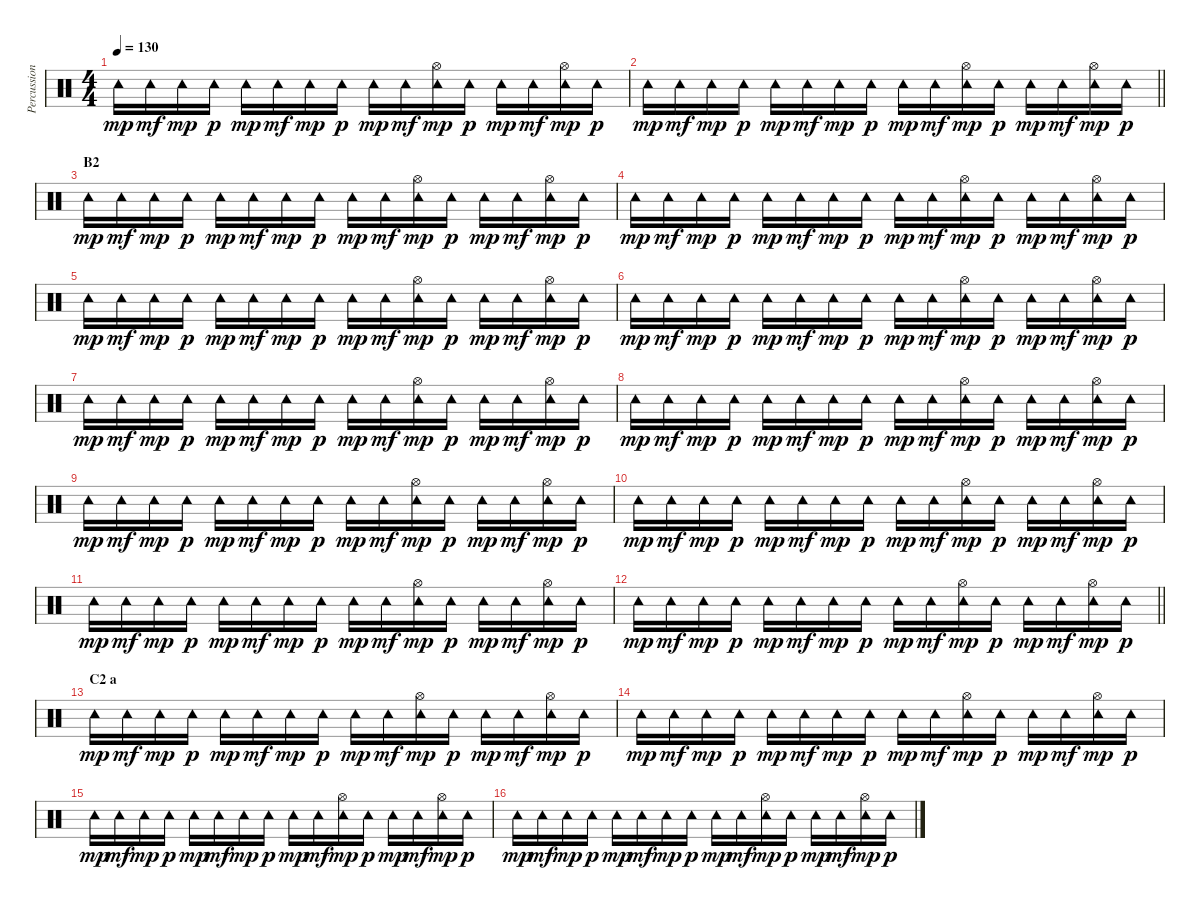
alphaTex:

\track ("Percussion (Programmed)" "Percussion") {instrument percussion}
\staff {score}
\articulation defaults
\ts (4 4)
\tempo 130
\clef neutral
\ks c "Tambourine (hit)".16{dy mp} "Tambourine (hit)".16{dy mf} "Tambourine (hit)".16{dy mp} "Tambourine (hit)".16{dy p} "Tambourine (hit)".16{dy mp} "Tambourine (hit)".16{dy mf} "Tambourine (hit)".16{dy mp} "Tambourine (hit)".16{dy p} "Tambourine (hit)".16{dy mp} "Tambourine (hit)".16{dy mf}
("Tambourine (hit)" "Hi-Hat (open)").16{dy mp} "Tambourine (hit)".16{dy p} "Tambourine (hit)".16{dy mp} "Tambourine (hit)".16{dy mf} ("Tambourine (hit)" "Hi-Hat (open)").16{dy mp} "Tambourine (hit)".16{dy p} |
\barLineRight lightlight "Tambourine (hit)".16{dy mp} "Tambourine (hit)".16{dy mf} "Tambourine (hit)".16{dy mp} "Tambourine (hit)".16{dy p} "Tambourine (hit)".16{dy mp} "Tambourine (hit)".16{dy mf} "Tambourine (hit)".16{dy mp} "Tambourine (hit)".16{dy p} "Tambourine (hit)".16{dy mp} "Tambourine (hit)".16{dy mf}
("Tambourine (hit)" "Hi-Hat (open)").16{dy mp} "Tambourine (hit)".16{dy p} "Tambourine (hit)".16{dy mp} "Tambourine (hit)".16{dy mf} ("Tambourine (hit)" "Hi-Hat (open)").16{dy mp} "Tambourine (hit)".16{dy p} |
\section ("" "B2")
"Tambourine (hit)".16{dy mp} "Tambourine (hit)".16{dy mf} "Tambourine (hit)".16{dy mp} "Tambourine (hit)".16{dy p} "Tambourine (hit)".16{dy mp} "Tambourine (hit)".16{dy mf} "Tambourine (hit)".16{dy mp} "Tambourine (hit)".16{dy p} "Tambourine (hit)".16{dy mp} "Tambourine (hit)".16{dy mf} ("Tambourine (hit)" "Hi-Hat (open)").16{dy mp} "Tambourine (hit)".16{dy p} "Tambourine (hit)".16{dy mp} "Tambourine (hit)".16{dy mf} ("Tambourine (hit)" "Hi-Hat (open)").16{dy mp} "Tambourine (hit)".16{dy p} |
"Tambourine (hit)".16{dy mp} "Tambourine (hit)".16{dy mf} "Tambourine (hit)".16{dy mp} "Tambourine (hit)".16{dy p} "Tambourine (hit)".16{dy mp} "Tambourine (hit)".16{dy mf} "Tambourine (hit)".16{dy mp} "Tambourine (hit)".16{dy p} "Tambourine (hit)".16{dy mp} "Tambourine (hit)".16{dy mf} ("Tambourine (hit)" "Hi-Hat (open)").16{dy mp} "Tambourine (hit)".16{dy p} "Tambourine (hit)".16{dy mp} "Tambourine (hit)".16{dy mf} ("Tambourine (hit)" "Hi-Hat (open)").16{dy mp} "Tambourine (hit)".16{dy p} |
"Tambourine (hit)".16{dy mp} "Tambourine (hit)".16{dy mf} "Tambourine (hit)".16{dy mp} "Tambourine (hit)".16{dy p} "Tambourine (hit)".16{dy mp} "Tambourine (hit)".16{dy mf} "Tambourine (hit)".16{dy mp} "Tambourine (hit)".16{dy p} "Tambourine (hit)".16{dy mp} "Tambourine (hit)".16{dy mf} ("Tambourine (hit)" "Hi-Hat (open)").16{dy mp} "Tambourine (hit)".16{dy p} "Tambourine (hit)".16{dy mp} "Tambourine (hit)".16{dy mf} ("Tambourine (hit)" "Hi-Hat (open)").16{dy mp} "Tambourine (hit)".16{dy p} |
"Tambourine (hit)".16{dy mp} "Tambourine (hit)".16{dy mf} "Tambourine (hit)".16{dy mp} "Tambourine (hit)".16{dy p} "Tambourine (hit)".16{dy mp} "Tambourine (hit)".16{dy mf} "Tambourine (hit)".16{dy mp} "Tambourine (hit)".16{dy p} "Tambourine (hit)".16{dy mp} "Tambourine (hit)".16{dy mf} ("Tambourine (hit)" "Hi-Hat (open)").16{dy mp} "Tambourine (hit)".16{dy p} "Tambourine (hit)".16{dy mp} "Tambourine (hit)".16{dy mf} ("Tambourine (hit)" "Hi-Hat (open)").16{dy mp} "Tambourine (hit)".16{dy p} |
"Tambourine (hit)".16{dy mp} "Tambourine (hit)".16{dy mf} "Tambourine (hit)".16{dy mp} "Tambourine (hit)".16{dy p} "Tambourine (hit)".16{dy mp} "Tambourine (hit)".16{dy mf} "Tambourine (hit)".16{dy mp} "Tambourine (hit)".16{dy p} "Tambourine (hit)".16{dy mp} "Tambourine (hit)".16{dy mf} ("Tambourine (hit)" "Hi-Hat (open)").16{dy mp} "Tambourine (hit)".16{dy p} "Tambourine (hit)".16{dy mp} "Tambourine (hit)".16{dy mf} ("Tambourine (hit)" "Hi-Hat (open)").16{dy mp} "Tambourine (hit)".16{dy p} |
"Tambourine (hit)".16{dy mp} "Tambourine (hit)".16{dy mf} "Tambourine (hit)".16{dy mp} "Tambourine (hit)".16{dy p} "Tambourine (hit)".16{dy mp} "Tambourine (hit)".16{dy mf} "Tambourine (hit)".16{dy mp} "Tambourine (hit)".16{dy p} "Tambourine (hit)".16{dy mp} "Tambourine (hit)".16{dy mf} ("Tambourine (hit)" "Hi-Hat (open)").16{dy mp} "Tambourine (hit)".16{dy p} "Tambourine (hit)".16{dy mp} "Tambourine (hit)".16{dy mf} ("Tambourine (hit)" "Hi-Hat (open)").16{dy mp} "Tambourine (hit)".16{dy p} |
"Tambourine (hit)".16{dy mp} "Tambourine (hit)".16{dy mf} "Tambourine (hit)".16{dy mp} "Tambourine (hit)".16{dy p} "Tambourine (hit)".16{dy mp} "Tambourine (hit)".16{dy mf} "Tambourine (hit)".16{dy mp} "Tambourine (hit)".16{dy p} "Tambourine (hit)".16{dy mp} "Tambourine (hit)".16{dy mf} ("Tambourine (hit)" "Hi-Hat (open)").16{dy mp} "Tambourine (hit)".16{dy p} "Tambourine (hit)".16{dy mp} "Tambourine (hit)".16{dy mf} ("Tambourine (hit)" "Hi-Hat (open)").16{dy mp} "Tambourine (hit)".16{dy p} |
"Tambourine (hit)".16{dy mp} "Tambourine (hit)".16{dy mf} "Tambourine (hit)".16{dy mp} "Tambourine (hit)".16{dy p} "Tambourine (hit)".16{dy mp} "Tambourine (hit)".16{dy mf} "Tambourine (hit)".16{dy mp} "Tambourine (hit)".16{dy p} "Tambourine (hit)".16{dy mp} "Tambourine (hit)".16{dy mf} ("Tambourine (hit)" "Hi-Hat (open)").16{dy mp} "Tambourine (hit)".16{dy p} "Tambourine (hit)".16{dy mp} "Tambourine (hit)".16{dy mf} ("Tambourine (hit)" "Hi-Hat (open)").16{dy mp} "Tambourine (hit)".16{dy p} |
"Tambourine (hit)".16{dy mp} "Tambourine (hit)".16{dy mf} "Tambourine (hit)".16{dy mp} "Tambourine (hit)".16{dy p} "Tambourine (hit)".16{dy mp} "Tambourine (hit)".16{dy mf} "Tambourine (hit)".16{dy mp} "Tambourine (hit)".16{dy p} "Tambourine (hit)".16{dy mp} "Tambourine (hit)".16{dy mf} ("Tambourine (hit)" "Hi-Hat (open)").16{dy mp} "Tambourine (hit)".16{dy p} "Tambourine (hit)".16{dy mp} "Tambourine (hit)".16{dy mf} ("Tambourine (hit)" "Hi-Hat (open)").16{dy mp} "Tambourine (hit)".16{dy p} |
\barLineRight lightlight "Tambourine (hit)".16{dy mp} "Tambourine (hit)".16{dy mf} "Tambourine (hit)".16{dy mp} "Tambourine (hit)".16{dy p} "Tambourine (hit)".16{dy mp} "Tambourine (hit)".16{dy mf} "Tambourine (hit)".16{dy mp} "Tambourine (hit)".16{dy p} "Tambourine (hit)".16{dy mp} "Tambourine (hit)".16{dy mf}
("Tambourine (hit)" "Hi-Hat (open)").16{dy mp} "Tambourine (hit)".16{dy p} "Tambourine (hit)".16{dy mp} "Tambourine (hit)".16{dy mf} ("Tambourine (hit)" "Hi-Hat (open)").16{dy mp} "Tambourine (hit)".16{dy p} |
\section ("" "C2 a")
"Tambourine (hit)".16{dy mp} "Tambourine (hit)".16{dy mf} "Tambourine (hit)".16{dy mp} "Tambourine (hit)".16{dy p} "Tambourine (hit)".16{dy mp} "Tambourine (hit)".16{dy mf} "Tambourine (hit)".16{dy mp} "Tambourine (hit)".16{dy p} "Tambourine (hit)".16{dy mp} "Tambourine (hit)".16{dy mf} ("Tambourine (hit)" "Hi-Hat (open)").16{dy mp} "Tambourine (hit)".16{dy p} "Tambourine (hit)".16{dy mp} "Tambourine (hit)".16{dy mf} ("Tambourine (hit)" "Hi-Hat (open)").16{dy mp} "Tambourine (hit)".16{dy p} |
"Tambourine (hit)".16{dy mp} "Tambourine (hit)".16{dy mf} "Tambourine (hit)".16{dy mp} "Tambourine (hit)".16{dy p} "Tambourine (hit)".16{dy mp} "Tambourine (hit)".16{dy mf} "Tambourine (hit)".16{dy mp} "Tambourine (hit)".16{dy p} "Tambourine (hit)".16{dy mp} "Tambourine (hit)".16{dy mf} ("Tambourine (hit)" "Hi-Hat (open)").16{dy mp} "Tambourine (hit)".16{dy p} "Tambourine (hit)".16{dy mp} "Tambourine (hit)".16{dy mf} ("Tambourine (hit)" "Hi-Hat (open)").16{dy mp} "Tambourine (hit)".16{dy p} |
"Tambourine (hit)".16{dy mp} "Tambourine (hit)".16{dy mf} "Tambourine (hit)".16{dy mp} "Tambourine (hit)".16{dy p} "Tambourine (hit)".16{dy mp} "Tambourine (hit)".16{dy mf} "Tambourine (hit)".16{dy mp} "Tambourine (hit)".16{dy p} "Tambourine (hit)".16{dy mp} "Tambourine (hit)".16{dy mf} ("Tambourine (hit)" "Hi-Hat (open)").16{dy mp} "Tambourine (hit)".16{dy p} "Tambourine (hit)".16{dy mp} "Tambourine (hit)".16{dy mf} ("Tambourine (hit)" "Hi-Hat (open)").16{dy mp} "Tambourine (hit)".16{dy p} |
"Tambourine (hit)".16{dy mp} "Tambourine (hit)".16{dy mf} "Tambourine (hit)".16{dy mp} "Tambourine (hit)".16{dy p} "Tambourine (hit)".16{dy mp} "Tambourine (hit)".16{dy mf} "Tambourine (hit)".16{dy mp} "Tambourine (hit)".16{dy p} "Tambourine (hit)".16{dy mp} "Tambourine (hit)".16{dy mf} ("Tambourine (hit)" "Hi-Hat (open)").16{dy mp} "Tambourine (hit)".16{dy p} "Tambourine (hit)".16{dy mp} "Tambourine (hit)".16{dy mf} ("Tambourine (hit)" "Hi-Hat (open)").16{dy mp} "Tambourine (hit)".16{dy p}
